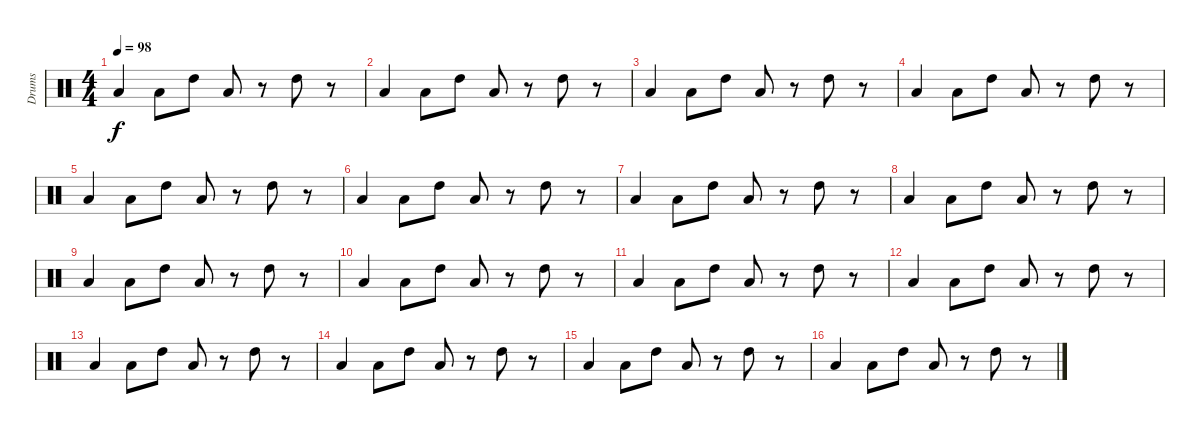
\track ("Drums" "Drums") {instrument percussion}
\staff {score}
\articulation defaults
\ts (4 4)
\tempo 98
\clef neutral
\ks c "Low Floor Tom (hit)".4{dy f} "Low Tom (hit)".8 "High Tom (hit)".8 "Low Floor Tom (hit)".8
r.8 "High Tom (hit)".8 r.8 |
"Low Floor Tom (hit)".4 "Low Tom (hit)".8 "High Tom (hit)".8 "Low Floor Tom (hit)".8 r.8 "High Tom (hit)".8 r.8 |
"Low Floor Tom (hit)".4 "Low Tom (hit)".8 "High Tom (hit)".8 "Low Floor Tom (hit)".8 r.8 "High Tom (hit)".8 r.8 |
"Low Floor Tom (hit)".4 "Low Tom (hit)".8 "High Tom (hit)".8 "Low Floor Tom (hit)".8 r.8 "High Tom (hit)".8 r.8 |
"Low Floor Tom (hit)".4 "Low Tom (hit)".8 "High Tom (hit)".8 "Low Floor Tom (hit)".8 r.8 "High Tom (hit)".8 r.8 |
"Low Floor Tom (hit)".4 "Low Tom (hit)".8 "High Tom (hit)".8 "Low Floor Tom (hit)".8 r.8 "High Tom (hit)".8 r.8 |
"Low Floor Tom (hit)".4 "Low Tom (hit)".8 "High Tom (hit)".8 "Low Floor Tom (hit)".8 r.8 "High Tom (hit)".8 r.8 |
"Low Floor Tom (hit)".4 "Low Tom (hit)".8 "High Tom (hit)".8 "Low Floor Tom (hit)".8 r.8 "High Tom (hit)".8 r.8 |
"Low Floor Tom (hit)".4 "Low Tom (hit)".8 "High Tom (hit)".8 "Low Floor Tom (hit)".8 r.8 "High Tom (hit)".8 r.8 |
"Low Floor Tom (hit)".4 "Low Tom (hit)".8 "High Tom (hit)".8 "Low Floor Tom (hit)".8 r.8 "High Tom (hit)".8 r.8 |
"Low Floor Tom (hit)".4 "Low Tom (hit)".8 "High Tom (hit)".8 "Low Floor Tom (hit)".8 r.8 "High Tom (hit)".8 r.8 |
"Low Floor Tom (hit)".4 "Low Tom (hit)".8 "High Tom (hit)".8 "Low Floor Tom (hit)".8 r.8 "High Tom (hit)".8 r.8 |
"Low Floor Tom (hit)".4 "Low Tom (hit)".8 "High Tom (hit)".8 "Low Floor Tom (hit)".8 r.8 "High Tom (hit)".8 r.8 |
"Low Floor Tom (hit)".4 "Low Tom (hit)".8 "High Tom (hit)".8 "Low Floor Tom (hit)".8 r.8 "High Tom (hit)".8 r.8 |
"Low Floor Tom (hit)".4 "Low Tom (hit)".8 "High Tom (hit)".8 "Low Floor Tom (hit)".8 r.8 "High Tom (hit)".8 r.8 |
"Low Floor Tom (hit)".4 "Low Tom (hit)".8 "High Tom (hit)".8 "Low Floor Tom (hit)".8 r.8 "High Tom (hit)".8 r.8
